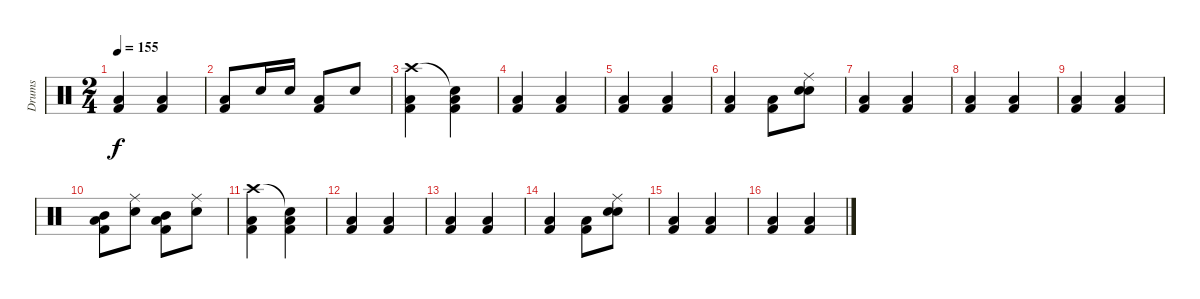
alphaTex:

\track ("Drums" "Drums") {instrument percussion}
\staff {score}
\articulation defaults
\ts (2 4)
\tempo 155
\clef neutral
\ks c
("Low Floor Tom (hit)" "Kick (hit) 2").4{dy f} ("Low Floor Tom (hit)" "Kick (hit) 2").4 |
("Low Floor Tom (hit)" "Kick (hit) 2").8 "Snare (hit) 2".16 "Snare (hit) 2".16 ("Low Floor Tom (hit)" "Kick (hit) 2").8 "Snare (hit) 2".8 |
("Low Floor Tom (hit)" "Kick (hit) 2" "Crash high (hit)").4 ("Low Floor Tom (hit)" "Kick (hit) 2" "Snare (hit)"{t}).4 |
("Low Floor Tom (hit)" "Kick (hit) 2").4 ("Low Floor Tom (hit)" "Kick (hit) 2").4 |
("Low Floor Tom (hit)" "Kick (hit) 2").4 ("Low Floor Tom (hit)" "Kick (hit) 2").4 |
("Low Floor Tom (hit)" "Kick (hit) 2").4 ("Low Floor Tom (hit)" "Kick (hit) 2").8 ("Snare (hit) 2" "Ride (middle)" "Snare (hit) 2").8 |
("Low Floor Tom (hit)" "Kick (hit) 2").4 ("Low Floor Tom (hit)" "Kick (hit) 2").4 |
("Low Floor Tom (hit)" "Kick (hit) 2").4 ("Low Floor Tom (hit)" "Kick (hit) 2").4 |
("Low Floor Tom (hit)" "Kick (hit) 2").4 ("Low Floor Tom (hit)" "Kick (hit) 2").4 |
("Low Floor Tom (hit)" "Kick (hit) 2" "Mid Tom (hit)").8 ("Snare (hit) 2" "Ride (middle)").8 ("Low Floor Tom (hit)" "Kick (hit) 2" "Mid Tom (hit)").8 ("Snare (hit) 2" "Ride (middle)").8 |
("Low Floor Tom (hit)" "Kick (hit) 2" "Crash high (hit)").4 ("Low Floor Tom (hit)" "Kick (hit) 2" "Snare (hit)"{t}).4 |
("Low Floor Tom (hit)" "Kick (hit) 2").4 ("Low Floor Tom (hit)" "Kick (hit) 2").4 |
("Low Floor Tom (hit)" "Kick (hit) 2").4 ("Low Floor Tom (hit)" "Kick (hit) 2").4 |
("Low Floor Tom (hit)" "Kick (hit) 2").4 ("Low Floor Tom (hit)" "Kick (hit) 2").8 ("Snare (hit) 2" "Ride (middle)" "Snare (hit) 2").8 |
("Low Floor Tom (hit)" "Kick (hit) 2").4 ("Low Floor Tom (hit)" "Kick (hit) 2").4 |
("Low Floor Tom (hit)" "Kick (hit) 2").4 ("Low Floor Tom (hit)" "Kick (hit) 2").4
